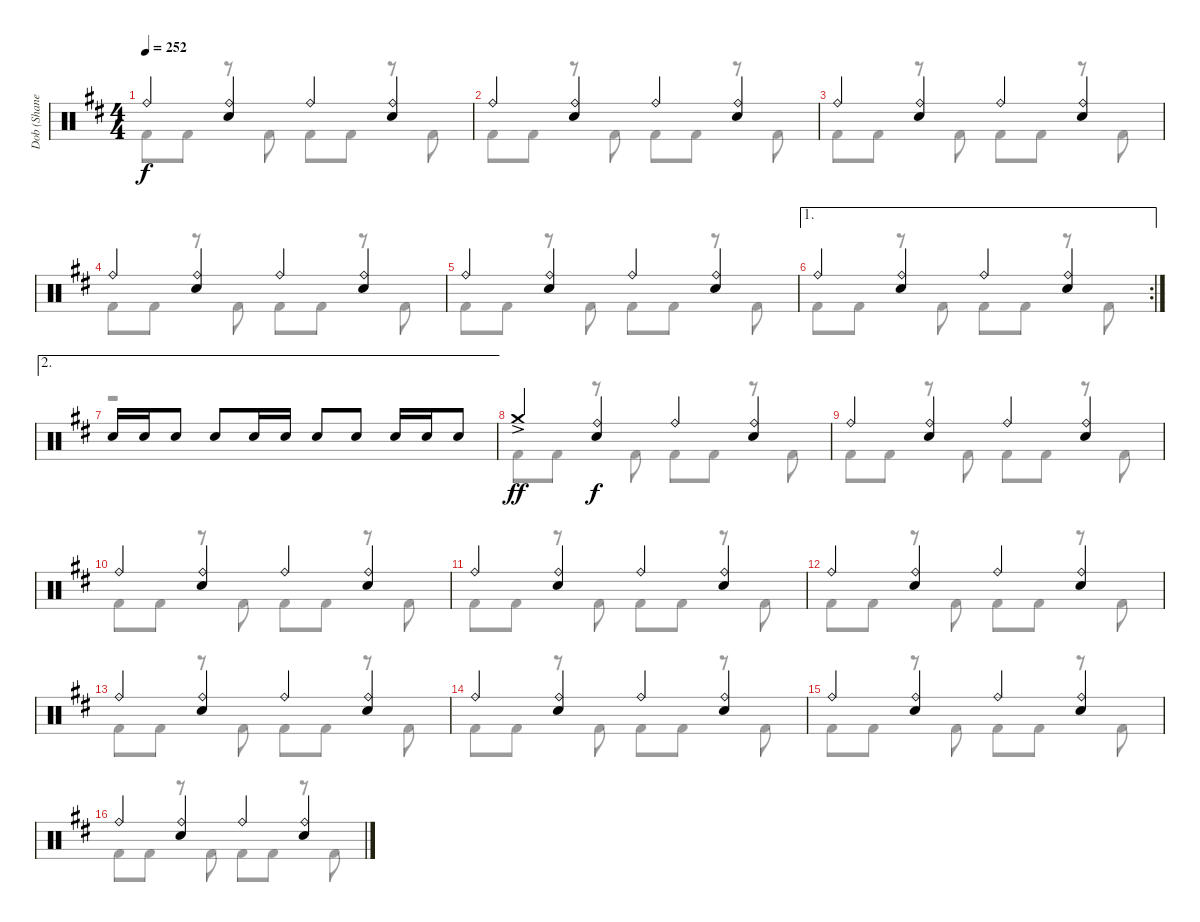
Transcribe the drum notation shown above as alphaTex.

\track ("Dob (Shane Gaalaas)" "Dob (Shane") {instrument percussion}
\staff {score}
\articulation defaults
\voice
\ts (4 4)
\tempo 252
\clef neutral
\ks d "Ride (bell)".4{dy f}
("Ride (bell)" "Electric Snare (hit)").4 "Ride (bell)".4 ("Ride (bell)" "Electric Snare (hit)").4 |
"Ride (bell)".4 ("Ride (bell)" "Electric Snare (hit)").4 "Ride (bell)".4 ("Ride (bell)" "Electric Snare (hit)").4 |
"Ride (bell)".4 ("Ride (bell)" "Electric Snare (hit)").4 "Ride (bell)".4 ("Ride (bell)" "Electric Snare (hit)").4 |
"Ride (bell)".4 ("Ride (bell)" "Electric Snare (hit)").4 "Ride (bell)".4 ("Ride (bell)" "Electric Snare (hit)").4 |
"Ride (bell)".4 ("Ride (bell)" "Electric Snare (hit)").4 "Ride (bell)".4 ("Ride (bell)" "Electric Snare (hit)").4 |
\ae 1
\rc 2 "Ride (bell)".4
("Ride (bell)" "Electric Snare (hit)").4 "Ride (bell)".4 ("Ride (bell)" "Electric Snare (hit)").4 |
\ae 2 "Electric Snare (hit)".16 "Electric Snare (hit)".16 "Electric Snare (hit)".8 "Electric Snare (hit)".8 "Electric Snare (hit)".16 "Electric Snare (hit)".16 "Electric Snare (hit)".8 "Electric Snare (hit)".8 "Electric Snare (hit)".16 "Electric Snare (hit)".16 "Electric Snare (hit)".8
|
"Crash medium (hit)"{ac}.4{dy ff} ("Ride (bell)" "Electric Snare (hit)").4{dy f} "Ride (bell)".4 ("Ride (bell)" "Electric Snare (hit)").4 |
"Ride (bell)".4 ("Ride (bell)" "Electric Snare (hit)").4 "Ride (bell)".4 ("Ride (bell)" "Electric Snare (hit)").4 |
"Ride (bell)".4 ("Ride (bell)" "Electric Snare (hit)").4 "Ride (bell)".4 ("Ride (bell)" "Electric Snare (hit)").4 |
"Ride (bell)".4 ("Ride (bell)" "Electric Snare (hit)").4 "Ride (bell)".4 ("Ride (bell)" "Electric Snare (hit)").4 |
"Ride (bell)".4 ("Ride (bell)" "Electric Snare (hit)").4 "Ride (bell)".4 ("Ride (bell)" "Electric Snare (hit)").4 |
"Ride (bell)".4 ("Ride (bell)" "Electric Snare (hit)").4 "Ride (bell)".4 ("Ride (bell)" "Electric Snare (hit)").4 |
"Ride (bell)".4 ("Ride (bell)" "Electric Snare (hit)").4 "Ride (bell)".4 ("Ride (bell)" "Electric Snare (hit)").4 |
"Ride (bell)".4 ("Ride (bell)" "Electric Snare (hit)").4 "Ride (bell)".4 ("Ride (bell)" "Electric Snare (hit)").4 |
"Ride (bell)".4 ("Ride (bell)" "Electric Snare (hit)").4 "Ride (bell)".4 ("Ride (bell)" "Electric Snare (hit)").4
\voice
\clef neutral
\ottava regular
\simile none
\ks d "Kick (hit) 2".8{dy f} "Kick (hit) 2".8
r.8 "Kick (hit) 2".8 "Kick (hit) 2".8 "Kick (hit) 2".8 r.8 "Kick (hit) 2".8 |
"Kick (hit) 2".8 "Kick (hit) 2".8 r.8 "Kick (hit) 2".8 "Kick (hit) 2".8 "Kick (hit) 2".8 r.8 "Kick (hit) 2".8 |
"Kick (hit) 2".8 "Kick (hit) 2".8 r.8 "Kick (hit) 2".8 "Kick (hit) 2".8 "Kick (hit) 2".8 r.8 "Kick (hit) 2".8 |
"Kick (hit) 2".8 "Kick (hit) 2".8 r.8 "Kick (hit) 2".8 "Kick (hit) 2".8 "Kick (hit) 2".8 r.8 "Kick (hit) 2".8 |
"Kick (hit) 2".8 "Kick (hit) 2".8 r.8 "Kick (hit) 2".8 "Kick (hit) 2".8 "Kick (hit) 2".8 r.8 "Kick (hit) 2".8 |
"Kick (hit) 2".8 "Kick (hit) 2".8 r.8 "Kick (hit) 2".8 "Kick (hit) 2".8 "Kick (hit) 2".8 r.8 "Kick (hit) 2".8 |
r.1 |
"Kick (hit) 2".8 "Kick (hit) 2".8 r.8 "Kick (hit) 2".8 "Kick (hit) 2".8 "Kick (hit) 2".8 r.8 "Kick (hit) 2".8 |
"Kick (hit) 2".8 "Kick (hit) 2".8 r.8 "Kick (hit) 2".8 "Kick (hit) 2".8 "Kick (hit) 2".8 r.8 "Kick (hit) 2".8 |
"Kick (hit) 2".8 "Kick (hit) 2".8 r.8 "Kick (hit) 2".8 "Kick (hit) 2".8 "Kick (hit) 2".8 r.8 "Kick (hit) 2".8 |
"Kick (hit) 2".8 "Kick (hit) 2".8 r.8 "Kick (hit) 2".8 "Kick (hit) 2".8 "Kick (hit) 2".8 r.8 "Kick (hit) 2".8 |
"Kick (hit) 2".8 "Kick (hit) 2".8 r.8 "Kick (hit) 2".8 "Kick (hit) 2".8 "Kick (hit) 2".8 r.8 "Kick (hit) 2".8 |
"Kick (hit) 2".8 "Kick (hit) 2".8 r.8 "Kick (hit) 2".8 "Kick (hit) 2".8 "Kick (hit) 2".8 r.8 "Kick (hit) 2".8 |
"Kick (hit) 2".8 "Kick (hit) 2".8 r.8 "Kick (hit) 2".8 "Kick (hit) 2".8 "Kick (hit) 2".8 r.8 "Kick (hit) 2".8 |
"Kick (hit) 2".8 "Kick (hit) 2".8 r.8 "Kick (hit) 2".8 "Kick (hit) 2".8 "Kick (hit) 2".8 r.8 "Kick (hit) 2".8 |
"Kick (hit) 2".8 "Kick (hit) 2".8 r.8 "Kick (hit) 2".8 "Kick (hit) 2".8 "Kick (hit) 2".8 r.8 "Kick (hit) 2".8
